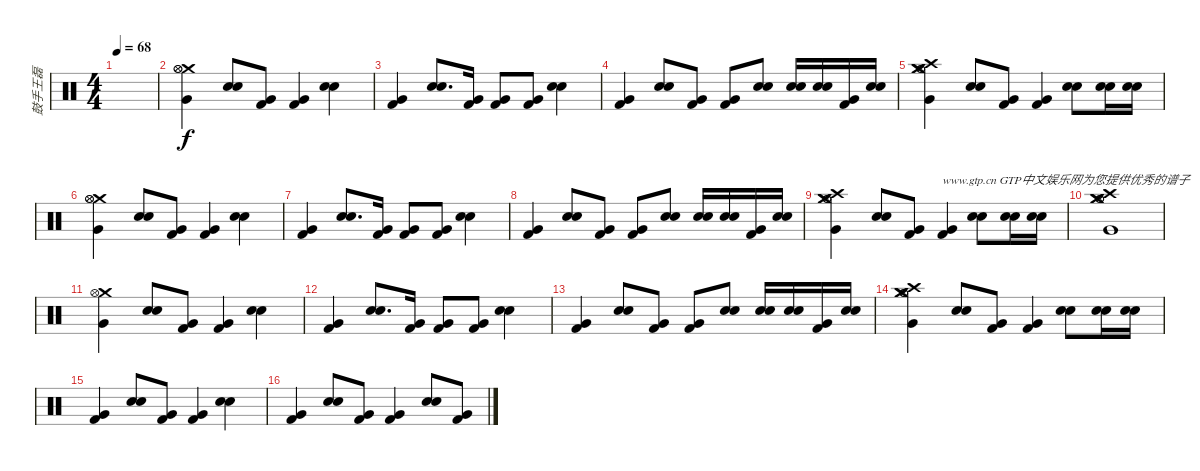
\track ("鼓手王磊" "鼓手王磊") {instrument percussion}
\staff {score}
\articulation defaults
\ts (4 4)
\tempo 68
\clef neutral
\ks c
|
("Crash medium (hit)" "Very Low Tom (hit)" "Hi-Hat (open)" "Hi-Hat (open)").4 ("Electric Snare (hit)" "Electric Snare (hit)").8 ("Very Low Tom (hit)" "Kick (hit) 2").8 ("Very Low Tom (hit)" "Kick (hit) 2").4 ("Electric Snare (hit)" "Electric Snare (hit)").4 |
("Very Low Tom (hit)" "Kick (hit) 2").4 ("Electric Snare (hit)" "Electric Snare (hit)").8{d} ("Very Low Tom (hit)" "Kick (hit) 2").16 ("Very Low Tom (hit)" "Kick (hit) 2").8 ("Very Low Tom (hit)" "Kick (hit) 2").8 ("Electric Snare (hit)" "Electric Snare (hit)").4 |
("Very Low Tom (hit)" "Kick (hit) 2").4 ("Electric Snare (hit)" "Electric Snare (hit)").8 ("Very Low Tom (hit)" "Kick (hit) 2").8 ("Very Low Tom (hit)" "Kick (hit) 2").8 ("Electric Snare (hit)" "Electric Snare (hit)").8 ("Electric Snare (hit)" "Electric Snare (hit)").16 ("Electric Snare (hit)" "Electric Snare (hit)").16 ("Very Low Tom (hit)" "Kick (hit) 2").16 ("Electric Snare (hit)" "Electric Snare (hit)").16 |
("Crash medium (hit)" "Crash medium (hit)" "Very Low Tom (hit)" "Crash high (hit)" "Hi-Hat (open)" "Hi-Hat (open)").4 ("Electric Snare (hit)" "Electric Snare (hit)").8 ("Very Low Tom (hit)" "Kick (hit) 2").8 ("Very Low Tom (hit)" "Kick (hit) 2").4 ("Electric Snare (hit)" "Electric Snare (hit)").8 ("Electric Snare (hit)" "Electric Snare (hit)").16 ("Electric Snare (hit)" "Electric Snare (hit)").16 |
("Crash medium (hit)" "Very Low Tom (hit)" "Hi-Hat (open)" "Hi-Hat (open)").4 ("Electric Snare (hit)" "Electric Snare (hit)").8 ("Very Low Tom (hit)" "Kick (hit) 2").8 ("Very Low Tom (hit)" "Kick (hit) 2").4 ("Electric Snare (hit)" "Electric Snare (hit)").4 |
("Very Low Tom (hit)" "Kick (hit) 2").4 ("Electric Snare (hit)" "Electric Snare (hit)").8{d} ("Very Low Tom (hit)" "Kick (hit) 2").16 ("Very Low Tom (hit)" "Kick (hit) 2").8 ("Very Low Tom (hit)" "Kick (hit) 2").8 ("Electric Snare (hit)" "Electric Snare (hit)").4 |
("Very Low Tom (hit)" "Kick (hit) 2").4 ("Electric Snare (hit)" "Electric Snare (hit)").8 ("Very Low Tom (hit)" "Kick (hit) 2").8 ("Very Low Tom (hit)" "Kick (hit) 2").8 ("Electric Snare (hit)" "Electric Snare (hit)").8 ("Electric Snare (hit)" "Electric Snare (hit)").16 ("Electric Snare (hit)" "Electric Snare (hit)").16 ("Very Low Tom (hit)" "Kick (hit) 2").16 ("Electric Snare (hit)" "Electric Snare (hit)").16 |
("Crash medium (hit)" "Crash medium (hit)" "Very Low Tom (hit)" "Crash high (hit)" "Hi-Hat (open)" "Hi-Hat (open)").4 ("Electric Snare (hit)" "Electric Snare (hit)").8 ("Very Low Tom (hit)" "Kick (hit) 2").8 ("Very Low Tom (hit)" "Kick (hit) 2").4{txt "www.gtp.cn GTP中文娱乐网为您提供优秀的谱子"} ("Electric Snare (hit)" "Electric Snare (hit)").8 ("Electric Snare (hit)" "Electric Snare (hit)").16 ("Electric Snare (hit)" "Electric Snare (hit)").16 |
("Crash medium (hit)" "Crash medium (hit)" "Very Low Tom (hit)" "Crash high (hit)" "Hi-Hat (open)" "Hi-Hat (open)").1 |
("Crash medium (hit)" "Very Low Tom (hit)" "Hi-Hat (open)").4 ("Electric Snare (hit)" "Electric Snare (hit)").8 ("Very Low Tom (hit)" "Kick (hit) 2").8 ("Very Low Tom (hit)" "Kick (hit) 2").4 ("Electric Snare (hit)" "Electric Snare (hit)").4 |
("Very Low Tom (hit)" "Kick (hit) 2").4 ("Electric Snare (hit)" "Electric Snare (hit)").8{d} ("Very Low Tom (hit)" "Kick (hit) 2").16 ("Very Low Tom (hit)" "Kick (hit) 2").8 ("Very Low Tom (hit)" "Kick (hit) 2").8 ("Electric Snare (hit)" "Electric Snare (hit)").4 |
("Very Low Tom (hit)" "Kick (hit) 2").4 ("Electric Snare (hit)" "Electric Snare (hit)").8 ("Very Low Tom (hit)" "Kick (hit) 2").8 ("Very Low Tom (hit)" "Kick (hit) 2").8 ("Electric Snare (hit)" "Electric Snare (hit)").8 ("Electric Snare (hit)" "Electric Snare (hit)").16 ("Electric Snare (hit)" "Electric Snare (hit)").16 ("Very Low Tom (hit)" "Kick (hit) 2").16 ("Electric Snare (hit)" "Electric Snare (hit)").16 |
("Crash medium (hit)" "Crash medium (hit)" "Very Low Tom (hit)" "Crash high (hit)" "Hi-Hat (open)" "Hi-Hat (open)").4 ("Electric Snare (hit)" "Electric Snare (hit)").8 ("Very Low Tom (hit)" "Kick (hit) 2").8 ("Very Low Tom (hit)" "Kick (hit) 2").4 ("Electric Snare (hit)" "Electric Snare (hit)").8 ("Electric Snare (hit)" "Electric Snare (hit)").16 ("Electric Snare (hit)" "Electric Snare (hit)").16 |
("Very Low Tom (hit)" "Kick (hit) 2").4 ("Electric Snare (hit)" "Electric Snare (hit)").8 ("Very Low Tom (hit)" "Kick (hit) 2").8 ("Very Low Tom (hit)" "Kick (hit) 2").4 ("Electric Snare (hit)" "Electric Snare (hit)").4 |
("Very Low Tom (hit)" "Kick (hit) 2").4 ("Electric Snare (hit)" "Electric Snare (hit)").8 ("Very Low Tom (hit)" "Kick (hit) 2").8 ("Very Low Tom (hit)" "Kick (hit) 2").4 ("Electric Snare (hit)" "Electric Snare (hit)").8 ("Very Low Tom (hit)" "Kick (hit) 2").8
